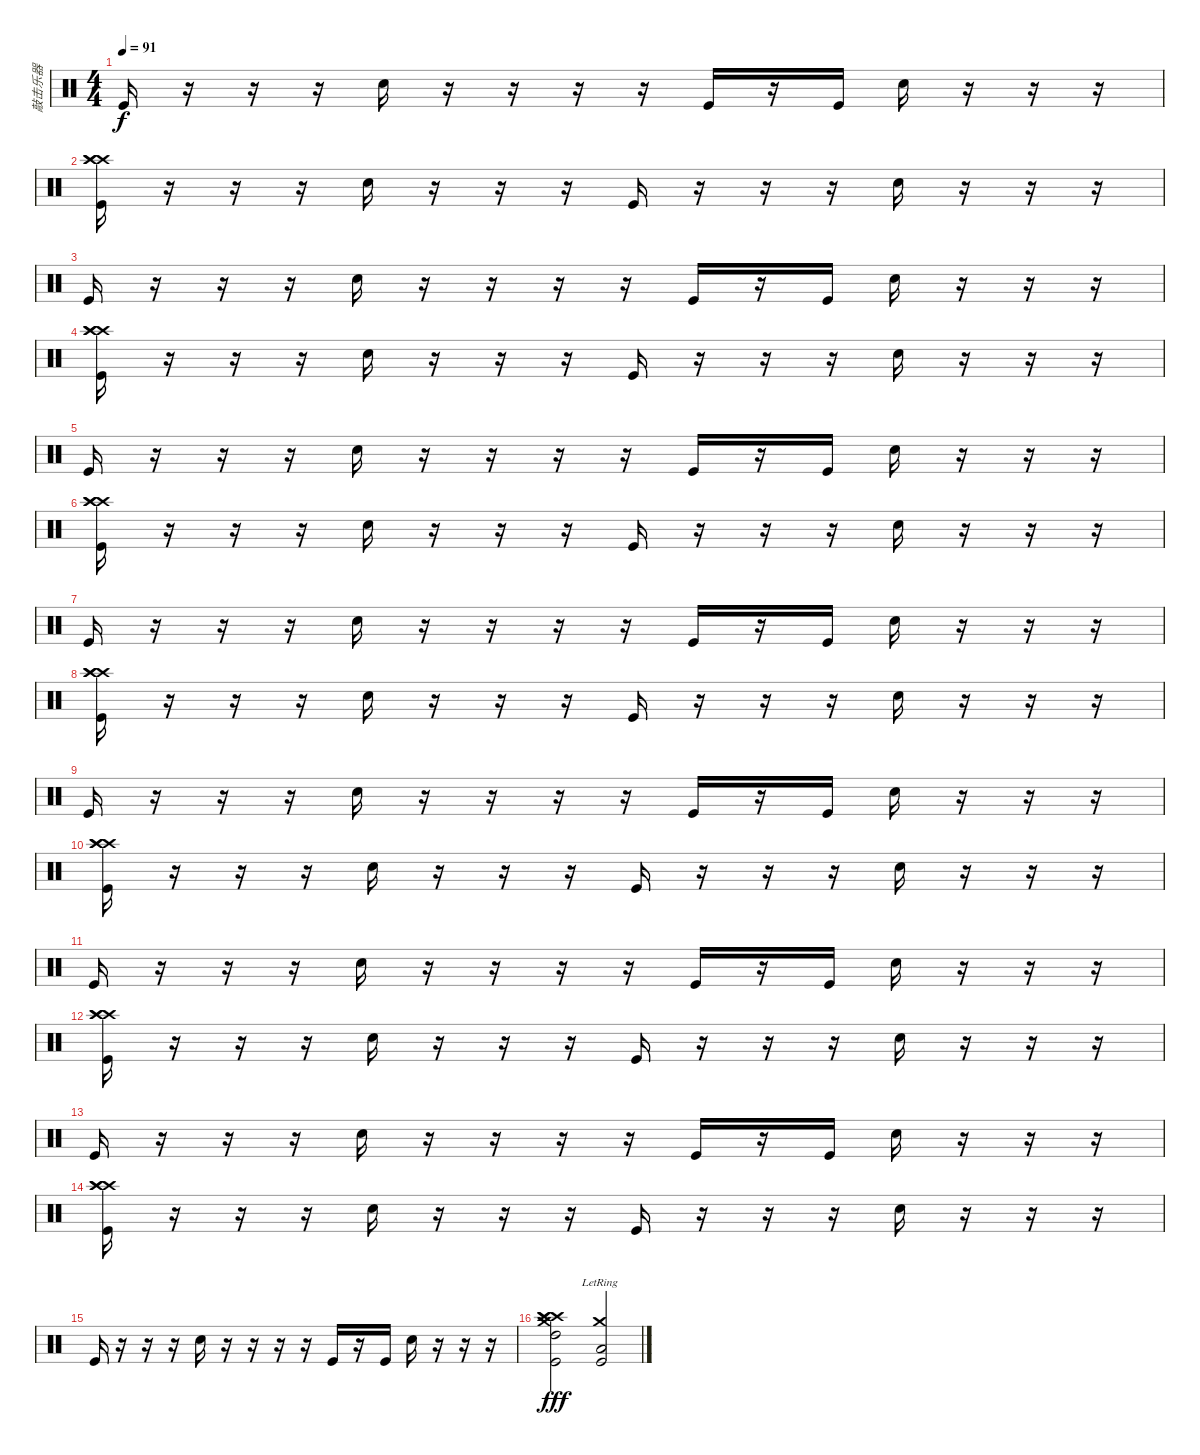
\track ("敲击乐器" "敲击乐器") {instrument percussion}
\staff {score}
\articulation defaults
\ts (4 4)
\tempo 91
\clef neutral
\ks c "Kick (hit)".16{dy f}
r.16 r.16 r.16 "Electric Snare (hit)".16 r.16 r.16 r.16 r.16 "Kick (hit)".16 r.16 "Kick (hit)".16 "Electric Snare (hit)".16 r.16 r.16 r.16 |
("Kick (hit)" "Crash high (hit)" "Crash high (hit)" "Crash high (hit)").16 r.16 r.16 r.16 "Electric Snare (hit)".16 r.16 r.16 r.16 "Kick (hit)".16 r.16 r.16 r.16 "Electric Snare (hit)".16 r.16 r.16 r.16 |
"Kick (hit)".16 r.16 r.16 r.16 "Electric Snare (hit)".16 r.16 r.16 r.16 r.16 "Kick (hit)".16 r.16 "Kick (hit)".16 "Electric Snare (hit)".16 r.16 r.16 r.16 |
("Kick (hit)" "Crash high (hit)" "Crash high (hit)" "Crash high (hit)").16 r.16 r.16 r.16 "Electric Snare (hit)".16 r.16 r.16 r.16 "Kick (hit)".16 r.16 r.16 r.16 "Electric Snare (hit)".16 r.16 r.16 r.16 |
"Kick (hit)".16 r.16 r.16 r.16 "Electric Snare (hit)".16 r.16 r.16 r.16 r.16 "Kick (hit)".16 r.16 "Kick (hit)".16 "Electric Snare (hit)".16 r.16 r.16 r.16 |
("Kick (hit)" "Crash high (hit)" "Crash high (hit)" "Crash high (hit)").16 r.16 r.16 r.16 "Electric Snare (hit)".16 r.16 r.16 r.16 "Kick (hit)".16 r.16 r.16 r.16 "Electric Snare (hit)".16 r.16 r.16 r.16 |
"Kick (hit)".16 r.16 r.16 r.16 "Electric Snare (hit)".16 r.16 r.16 r.16 r.16 "Kick (hit)".16 r.16 "Kick (hit)".16 "Electric Snare (hit)".16 r.16 r.16 r.16 |
("Kick (hit)" "Crash high (hit)" "Crash high (hit)" "Crash high (hit)").16 r.16 r.16 r.16 "Electric Snare (hit)".16 r.16 r.16 r.16 "Kick (hit)".16 r.16 r.16 r.16 "Electric Snare (hit)".16 r.16 r.16 r.16 |
"Kick (hit)".16 r.16 r.16 r.16 "Electric Snare (hit)".16 r.16 r.16 r.16 r.16 "Kick (hit)".16 r.16 "Kick (hit)".16 "Electric Snare (hit)".16 r.16 r.16 r.16 |
("Kick (hit)" "Crash high (hit)" "Crash high (hit)" "Crash high (hit)").16 r.16 r.16 r.16 "Electric Snare (hit)".16 r.16 r.16 r.16 "Kick (hit)".16 r.16 r.16 r.16 "Electric Snare (hit)".16 r.16 r.16 r.16 |
"Kick (hit)".16 r.16 r.16 r.16 "Electric Snare (hit)".16 r.16 r.16 r.16 r.16 "Kick (hit)".16 r.16 "Kick (hit)".16 "Electric Snare (hit)".16 r.16 r.16 r.16 |
("Kick (hit)" "Crash high (hit)" "Crash high (hit)" "Crash high (hit)").16 r.16 r.16 r.16 "Electric Snare (hit)".16 r.16 r.16 r.16 "Kick (hit)".16 r.16 r.16 r.16 "Electric Snare (hit)".16 r.16 r.16 r.16 |
"Kick (hit)".16 r.16 r.16 r.16 "Electric Snare (hit)".16 r.16 r.16 r.16 r.16 "Kick (hit)".16 r.16 "Kick (hit)".16 "Electric Snare (hit)".16 r.16 r.16 r.16 |
("Kick (hit)" "Crash high (hit)" "Crash high (hit)" "Crash high (hit)").16 r.16 r.16 r.16 "Electric Snare (hit)".16 r.16 r.16 r.16 "Kick (hit)".16 r.16 r.16 r.16 "Electric Snare (hit)".16 r.16 r.16 r.16 |
"Kick (hit)".16 r.16 r.16 r.16 "Electric Snare (hit)".16 r.16 r.16 r.16 r.16 "Kick (hit)".16 r.16 "Kick (hit)".16 "Electric Snare (hit)".16 r.16 r.16 r.16 |
("High Tom (hit)" "Kick (hit)" "Crash high (hit)" "Crash high (hit)" "Crash high (hit)" "Crash medium (hit)").2{dy fff} ("Low Tom (hit)" "Kick (hit)" "Crash medium (hit)"{lr}).2
